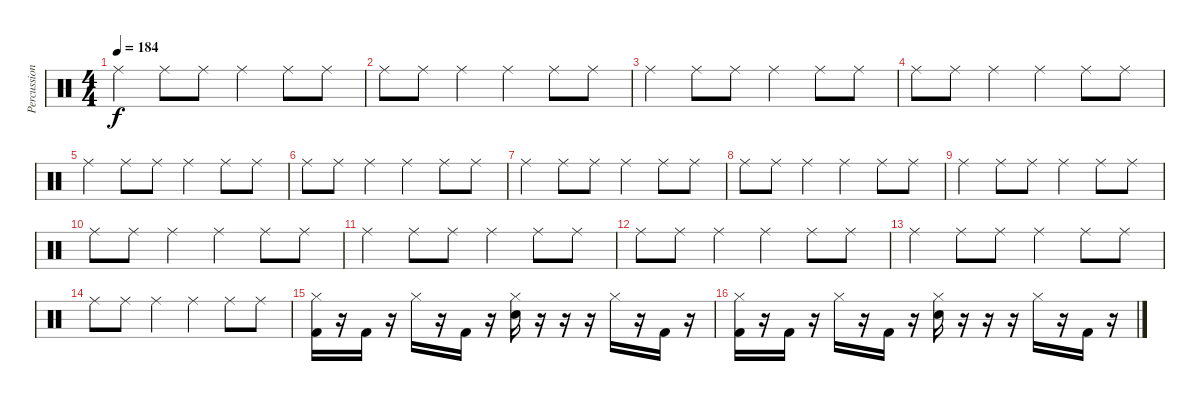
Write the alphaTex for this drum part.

\track ("Percussion" "Percussion") {instrument percussion}
\staff {score}
\articulation defaults
\ts (4 4)
\tempo 184
\clef neutral
\ks c "Ride (middle)".4{dy f} "Ride (middle)".8 "Ride (middle)".8 "Ride (middle)".4 "Ride (middle)".8 "Ride (middle)".8
|
"Ride (middle)".8 "Ride (middle)".8 "Ride (middle)".4 "Ride (middle)".4 "Ride (middle)".8 "Ride (middle)".8 |
"Ride (middle)".4 "Ride (middle)".8 "Ride (middle)".8 "Ride (middle)".4 "Ride (middle)".8 "Ride (middle)".8 |
"Ride (middle)".8 "Ride (middle)".8 "Ride (middle)".4 "Ride (middle)".4 "Ride (middle)".8 "Ride (middle)".8 |
"Ride (middle)".4 "Ride (middle)".8 "Ride (middle)".8 "Ride (middle)".4 "Ride (middle)".8 "Ride (middle)".8 |
"Ride (middle)".8 "Ride (middle)".8 "Ride (middle)".4 "Ride (middle)".4 "Ride (middle)".8 "Ride (middle)".8 |
"Ride (middle)".4 "Ride (middle)".8 "Ride (middle)".8 "Ride (middle)".4 "Ride (middle)".8 "Ride (middle)".8 |
"Ride (middle)".8 "Ride (middle)".8 "Ride (middle)".4 "Ride (middle)".4 "Ride (middle)".8 "Ride (middle)".8 |
"Ride (middle)".4 "Ride (middle)".8 "Ride (middle)".8 "Ride (middle)".4 "Ride (middle)".8 "Ride (middle)".8 |
"Ride (middle)".8 "Ride (middle)".8 "Ride (middle)".4 "Ride (middle)".4 "Ride (middle)".8 "Ride (middle)".8 |
"Ride (middle)".4 "Ride (middle)".8 "Ride (middle)".8 "Ride (middle)".4 "Ride (middle)".8 "Ride (middle)".8 |
"Ride (middle)".8 "Ride (middle)".8 "Ride (middle)".4 "Ride (middle)".4 "Ride (middle)".8 "Ride (middle)".8 |
"Ride (middle)".4 "Ride (middle)".8 "Ride (middle)".8 "Ride (middle)".4 "Ride (middle)".8 "Ride (middle)".8 |
"Ride (middle)".8 "Ride (middle)".8 "Ride (middle)".4 "Ride (middle)".4 "Ride (middle)".8 "Ride (middle)".8 |
("Hi-Hat (closed)" "Kick (hit) 2").16 r.16 "Kick (hit) 2".16 r.16 "Hi-Hat (closed)".16 r.16 "Kick (hit) 2".16 r.16 ("Hi-Hat (closed)" "Electric Snare (hit)").16 r.16 r.16 r.16 "Hi-Hat (closed)".16 r.16 "Kick (hit) 2".16 r.16 |
("Hi-Hat (closed)" "Kick (hit) 2").16 r.16 "Kick (hit) 2".16 r.16 "Hi-Hat (closed)".16 r.16 "Kick (hit) 2".16 r.16 ("Hi-Hat (closed)" "Electric Snare (hit)").16 r.16 r.16 r.16 "Hi-Hat (closed)".16 r.16 "Kick (hit) 2".16 r.16
